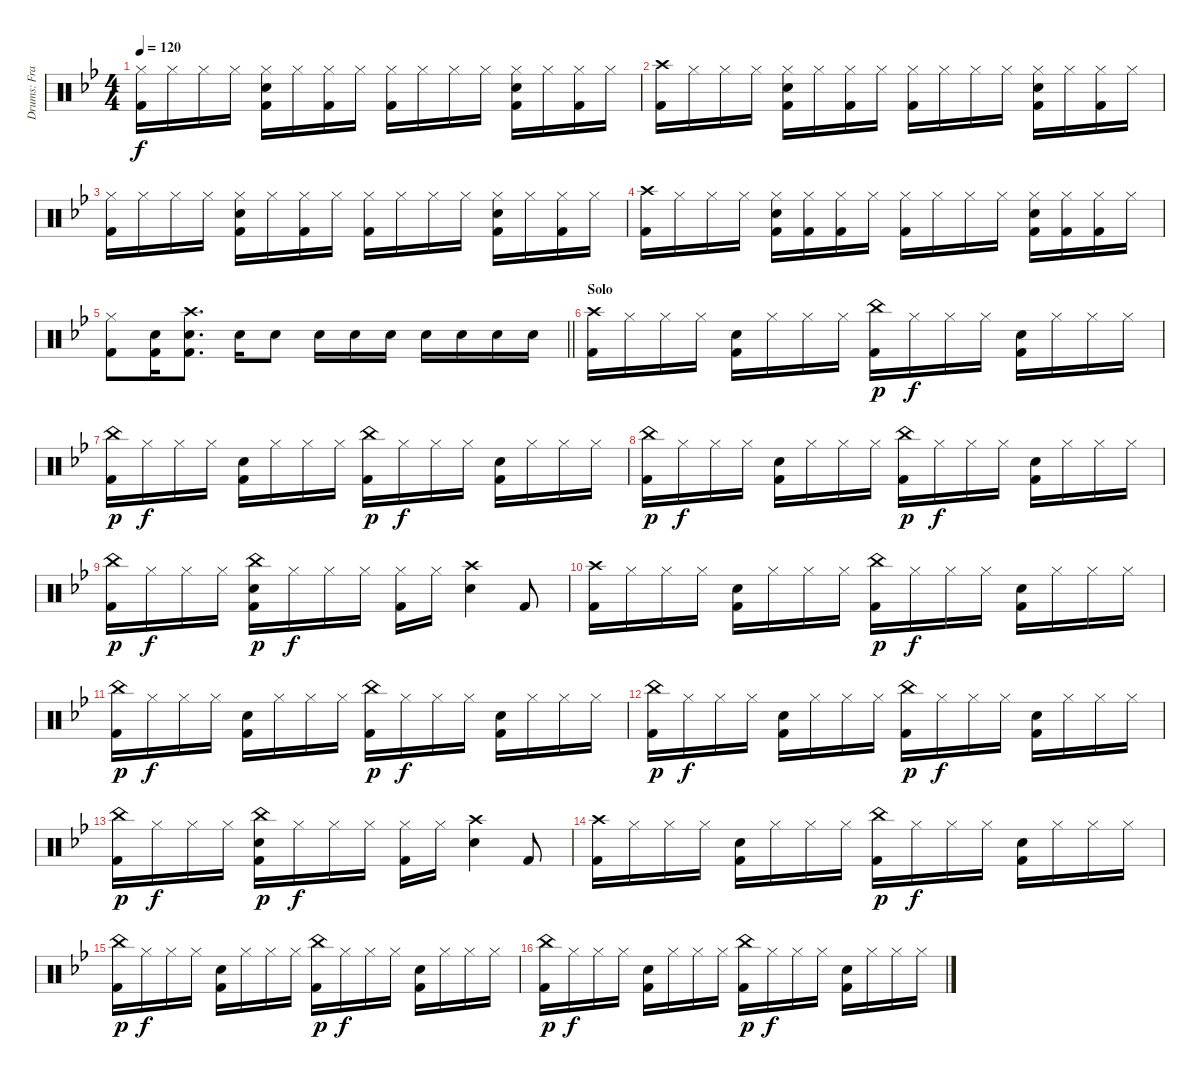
\track ("Drums: Frank" "Drums: Fra") {instrument percussion}
\staff {score}
\articulation defaults
\ts (4 4)
\tempo 120
\clef neutral
\ks bb
("Hi-Hat (closed)" "Kick (hit) 2").16{dy f} "Hi-Hat (closed)".16 "Hi-Hat (closed)".16 "Hi-Hat (closed)".16 ("Hi-Hat (closed)" "Electric Snare (hit)" "Kick (hit) 2").16 "Hi-Hat (closed)".16 ("Hi-Hat (closed)" "Kick (hit) 2").16 "Hi-Hat (closed)".16 ("Hi-Hat (closed)" "Kick (hit) 2").16 "Hi-Hat (closed)".16 "Hi-Hat (closed)".16 "Hi-Hat (closed)".16 ("Hi-Hat (closed)" "Electric Snare (hit)" "Kick (hit) 2").16 "Hi-Hat (closed)".16 ("Hi-Hat (closed)" "Kick (hit) 2").16 "Hi-Hat (closed)".16 |
("Crash high (hit)" "Kick (hit) 2").16 "Hi-Hat (closed)".16 "Hi-Hat (closed)".16 "Hi-Hat (closed)".16 ("Hi-Hat (closed)" "Electric Snare (hit)" "Kick (hit) 2").16 "Hi-Hat (closed)".16 ("Hi-Hat (closed)" "Kick (hit) 2").16 "Hi-Hat (closed)".16 ("Hi-Hat (closed)" "Kick (hit) 2").16 "Hi-Hat (closed)".16 "Hi-Hat (closed)".16 "Hi-Hat (closed)".16 ("Hi-Hat (closed)" "Electric Snare (hit)" "Kick (hit) 2").16 "Hi-Hat (closed)".16 ("Hi-Hat (closed)" "Kick (hit) 2").16 "Hi-Hat (closed)".16 |
("Hi-Hat (closed)" "Kick (hit) 2").16 "Hi-Hat (closed)".16 "Hi-Hat (closed)".16 "Hi-Hat (closed)".16 ("Hi-Hat (closed)" "Electric Snare (hit)" "Kick (hit) 2").16 "Hi-Hat (closed)".16 ("Hi-Hat (closed)" "Kick (hit) 2").16 "Hi-Hat (closed)".16 ("Hi-Hat (closed)" "Kick (hit) 2").16 "Hi-Hat (closed)".16 "Hi-Hat (closed)".16 "Hi-Hat (closed)".16 ("Hi-Hat (closed)" "Electric Snare (hit)" "Kick (hit) 2").16 "Hi-Hat (closed)".16 ("Hi-Hat (closed)" "Kick (hit) 2").16 "Hi-Hat (closed)".16 |
("Crash high (hit)" "Kick (hit) 2").16 "Hi-Hat (closed)".16 "Hi-Hat (closed)".16 "Hi-Hat (closed)".16 ("Hi-Hat (closed)" "Electric Snare (hit)" "Kick (hit) 2").16 ("Hi-Hat (closed)" "Kick (hit) 2").16 ("Hi-Hat (closed)" "Kick (hit) 2").16 "Hi-Hat (closed)".16 ("Hi-Hat (closed)" "Kick (hit) 2").16 "Hi-Hat (closed)".16 "Hi-Hat (closed)".16 "Hi-Hat (closed)".16 ("Hi-Hat (closed)" "Electric Snare (hit)" "Kick (hit) 2").16 ("Hi-Hat (closed)" "Kick (hit) 2").16 ("Hi-Hat (closed)" "Kick (hit) 2").16 "Hi-Hat (closed)".16 |
\barLineRight lightlight
("Hi-Hat (closed)" "Kick (hit) 2").8 ("Electric Snare (hit)" "Kick (hit) 2").16 ("Crash high (hit)" "Electric Snare (hit)" "Kick (hit) 2").8{d} "Electric Snare (hit)".16 "Electric Snare (hit)".8 "Electric Snare (hit)".16 "Electric Snare (hit)".16 "Electric Snare (hit)".16 "Electric Snare (hit)".16 "Electric Snare (hit)".16 "Electric Snare (hit)".16 "Electric Snare (hit)".16 |
\section ("" "Solo")
("Crash high (hit)" "Kick (hit) 2").16 "Hi-Hat (closed)".16 "Hi-Hat (closed)".16 "Hi-Hat (closed)".16 ("Electric Snare (hit)" "Kick (hit) 2").16 "Hi-Hat (closed)".16 "Hi-Hat (closed)".16 "Hi-Hat (closed)".16 ("China (hit)" "Kick (hit) 2").16{dy p} "Hi-Hat (closed)".16{dy f} "Hi-Hat (closed)".16 "Hi-Hat (closed)".16 ("Electric Snare (hit)" "Kick (hit) 2").16 "Hi-Hat (closed)".16 "Hi-Hat (closed)".16 "Hi-Hat (closed)".16 |
("China (hit)" "Kick (hit) 2").16{dy p} "Hi-Hat (closed)".16{dy f} "Hi-Hat (closed)".16 "Hi-Hat (closed)".16 ("Electric Snare (hit)" "Kick (hit) 2").16 "Hi-Hat (closed)".16 "Hi-Hat (closed)".16 "Hi-Hat (closed)".16 ("China (hit)" "Kick (hit) 2").16{dy p} "Hi-Hat (closed)".16{dy f} "Hi-Hat (closed)".16 "Hi-Hat (closed)".16 ("Electric Snare (hit)" "Kick (hit) 2").16 "Hi-Hat (closed)".16 "Hi-Hat (closed)".16 "Hi-Hat (closed)".16 |
("China (hit)" "Kick (hit) 2").16{dy p} "Hi-Hat (closed)".16{dy f} "Hi-Hat (closed)".16 "Hi-Hat (closed)".16 ("Electric Snare (hit)" "Kick (hit) 2").16 "Hi-Hat (closed)".16 "Hi-Hat (closed)".16 "Hi-Hat (closed)".16 ("China (hit)" "Kick (hit) 2").16{dy p} "Hi-Hat (closed)".16{dy f} "Hi-Hat (closed)".16 "Hi-Hat (closed)".16 ("Electric Snare (hit)" "Kick (hit) 2").16 "Hi-Hat (closed)".16 "Hi-Hat (closed)".16 "Hi-Hat (closed)".16 |
("China (hit)" "Kick (hit) 2").16{dy p} "Hi-Hat (closed)".16{dy f} "Hi-Hat (closed)".16 "Hi-Hat (closed)".16 ("China (hit)" "Electric Snare (hit)" "Kick (hit) 2").16{dy p} "Hi-Hat (closed)".16{dy f} "Hi-Hat (closed)".16 "Hi-Hat (closed)".16 ("Hi-Hat (closed)" "Kick (hit) 2").16 "Hi-Hat (closed)".16 ("Crash high (hit)" "Electric Snare (hit)").4 "Kick (hit) 2".8 |
("Crash high (hit)" "Kick (hit) 2").16 "Hi-Hat (closed)".16 "Hi-Hat (closed)".16 "Hi-Hat (closed)".16 ("Electric Snare (hit)" "Kick (hit) 2").16 "Hi-Hat (closed)".16 "Hi-Hat (closed)".16 "Hi-Hat (closed)".16 ("China (hit)" "Kick (hit) 2").16{dy p} "Hi-Hat (closed)".16{dy f} "Hi-Hat (closed)".16 "Hi-Hat (closed)".16 ("Electric Snare (hit)" "Kick (hit) 2").16 "Hi-Hat (closed)".16 "Hi-Hat (closed)".16 "Hi-Hat (closed)".16 |
("China (hit)" "Kick (hit) 2").16{dy p} "Hi-Hat (closed)".16{dy f} "Hi-Hat (closed)".16 "Hi-Hat (closed)".16 ("Electric Snare (hit)" "Kick (hit) 2").16 "Hi-Hat (closed)".16 "Hi-Hat (closed)".16 "Hi-Hat (closed)".16 ("China (hit)" "Kick (hit) 2").16{dy p} "Hi-Hat (closed)".16{dy f} "Hi-Hat (closed)".16 "Hi-Hat (closed)".16 ("Electric Snare (hit)" "Kick (hit) 2").16 "Hi-Hat (closed)".16 "Hi-Hat (closed)".16 "Hi-Hat (closed)".16 |
("China (hit)" "Kick (hit) 2").16{dy p} "Hi-Hat (closed)".16{dy f} "Hi-Hat (closed)".16 "Hi-Hat (closed)".16 ("Electric Snare (hit)" "Kick (hit) 2").16 "Hi-Hat (closed)".16 "Hi-Hat (closed)".16 "Hi-Hat (closed)".16 ("China (hit)" "Kick (hit) 2").16{dy p} "Hi-Hat (closed)".16{dy f} "Hi-Hat (closed)".16 "Hi-Hat (closed)".16 ("Electric Snare (hit)" "Kick (hit) 2").16 "Hi-Hat (closed)".16 "Hi-Hat (closed)".16 "Hi-Hat (closed)".16 |
("China (hit)" "Kick (hit) 2").16{dy p} "Hi-Hat (closed)".16{dy f} "Hi-Hat (closed)".16 "Hi-Hat (closed)".16 ("China (hit)" "Electric Snare (hit)" "Kick (hit) 2").16{dy p} "Hi-Hat (closed)".16{dy f} "Hi-Hat (closed)".16 "Hi-Hat (closed)".16 ("Hi-Hat (closed)" "Kick (hit) 2").16 "Hi-Hat (closed)".16 ("Crash high (hit)" "Electric Snare (hit)").4 "Kick (hit) 2".8 |
("Crash high (hit)" "Kick (hit) 2").16 "Hi-Hat (closed)".16 "Hi-Hat (closed)".16 "Hi-Hat (closed)".16 ("Electric Snare (hit)" "Kick (hit) 2").16 "Hi-Hat (closed)".16 "Hi-Hat (closed)".16 "Hi-Hat (closed)".16 ("China (hit)" "Kick (hit) 2").16{dy p} "Hi-Hat (closed)".16{dy f} "Hi-Hat (closed)".16 "Hi-Hat (closed)".16 ("Electric Snare (hit)" "Kick (hit) 2").16 "Hi-Hat (closed)".16 "Hi-Hat (closed)".16 "Hi-Hat (closed)".16 |
("China (hit)" "Kick (hit) 2").16{dy p} "Hi-Hat (closed)".16{dy f} "Hi-Hat (closed)".16 "Hi-Hat (closed)".16 ("Electric Snare (hit)" "Kick (hit) 2").16 "Hi-Hat (closed)".16 "Hi-Hat (closed)".16 "Hi-Hat (closed)".16 ("China (hit)" "Kick (hit) 2").16{dy p} "Hi-Hat (closed)".16{dy f} "Hi-Hat (closed)".16 "Hi-Hat (closed)".16 ("Electric Snare (hit)" "Kick (hit) 2").16 "Hi-Hat (closed)".16 "Hi-Hat (closed)".16 "Hi-Hat (closed)".16 |
("China (hit)" "Kick (hit) 2").16{dy p} "Hi-Hat (closed)".16{dy f} "Hi-Hat (closed)".16 "Hi-Hat (closed)".16 ("Electric Snare (hit)" "Kick (hit) 2").16 "Hi-Hat (closed)".16 "Hi-Hat (closed)".16 "Hi-Hat (closed)".16 ("China (hit)" "Kick (hit) 2").16{dy p} "Hi-Hat (closed)".16{dy f} "Hi-Hat (closed)".16 "Hi-Hat (closed)".16 ("Electric Snare (hit)" "Kick (hit) 2").16 "Hi-Hat (closed)".16 "Hi-Hat (closed)".16 "Hi-Hat (closed)".16
